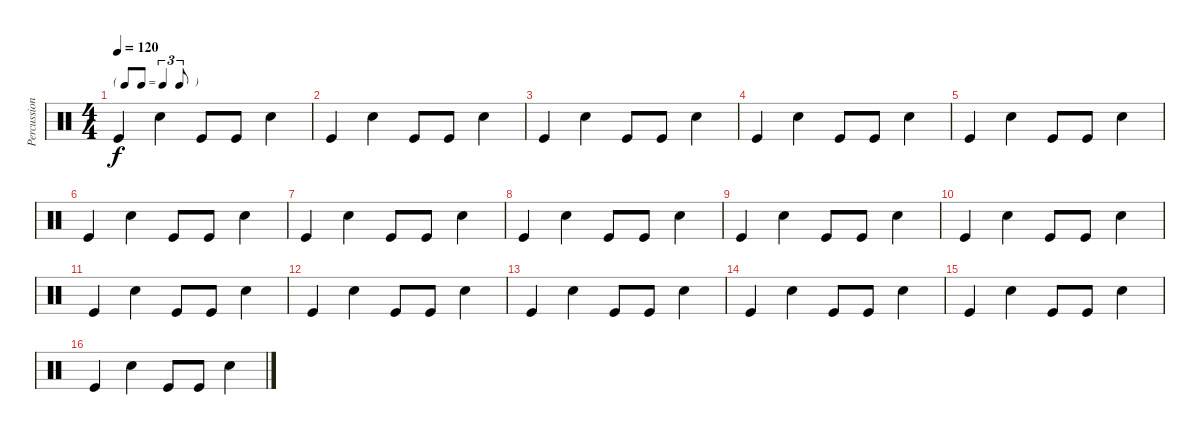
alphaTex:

\track ("Percussion" "Percussion") {instrument percussion}
\staff {score}
\articulation defaults
\ts (4 4)
\tf triplet8th
\tempo 120
\clef neutral
\ks c "Kick (hit)".4{dy f} "Snare (hit) 2".4 "Kick (hit)".8 "Kick (hit)".8 "Snare (hit) 2".4
|
"Kick (hit)".4 "Snare (hit) 2".4 "Kick (hit)".8 "Kick (hit)".8 "Snare (hit) 2".4 |
"Kick (hit)".4 "Snare (hit) 2".4 "Kick (hit)".8 "Kick (hit)".8 "Snare (hit) 2".4 |
"Kick (hit)".4 "Snare (hit) 2".4 "Kick (hit)".8 "Kick (hit)".8 "Snare (hit) 2".4 |
"Kick (hit)".4 "Snare (hit) 2".4 "Kick (hit)".8 "Kick (hit)".8 "Snare (hit) 2".4 |
"Kick (hit)".4 "Snare (hit) 2".4 "Kick (hit)".8 "Kick (hit)".8 "Snare (hit) 2".4 |
"Kick (hit)".4 "Snare (hit) 2".4 "Kick (hit)".8 "Kick (hit)".8 "Snare (hit) 2".4 |
"Kick (hit)".4 "Snare (hit) 2".4 "Kick (hit)".8 "Kick (hit)".8 "Snare (hit) 2".4 |
"Kick (hit)".4 "Snare (hit) 2".4 "Kick (hit)".8 "Kick (hit)".8 "Snare (hit) 2".4 |
"Kick (hit)".4 "Snare (hit) 2".4 "Kick (hit)".8 "Kick (hit)".8 "Snare (hit) 2".4 |
"Kick (hit)".4 "Snare (hit) 2".4 "Kick (hit)".8 "Kick (hit)".8 "Snare (hit) 2".4 |
"Kick (hit)".4 "Snare (hit) 2".4 "Kick (hit)".8 "Kick (hit)".8 "Snare (hit) 2".4 |
"Kick (hit)".4 "Snare (hit) 2".4 "Kick (hit)".8 "Kick (hit)".8 "Snare (hit) 2".4 |
"Kick (hit)".4 "Snare (hit) 2".4 "Kick (hit)".8 "Kick (hit)".8 "Snare (hit) 2".4 |
"Kick (hit)".4 "Snare (hit) 2".4 "Kick (hit)".8 "Kick (hit)".8 "Snare (hit) 2".4 |
"Kick (hit)".4 "Snare (hit) 2".4 "Kick (hit)".8 "Kick (hit)".8 "Snare (hit) 2".4
